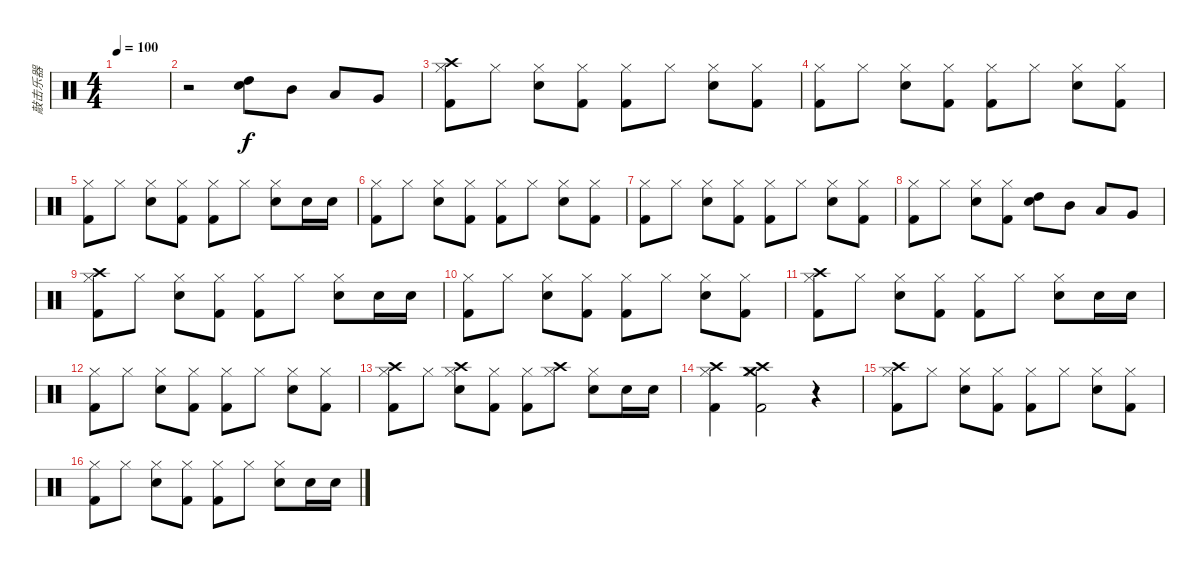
\track ("敲击乐器" "敲击乐器") {instrument percussion}
\staff {score}
\articulation defaults
\ts (4 4)
\tempo 100
\clef neutral
\ks c
|
r.2 ("High Tom (hit)" "Electric Snare (hit)").8 "Mid Tom (hit)".8 "Low Tom (hit)".8 "Very Low Tom (hit)".8 |
("Hi-Hat (closed)" "Crash high (hit)" "Kick (hit) 2").8 "Hi-Hat (closed)".8 ("Hi-Hat (closed)" "Electric Snare (hit)").8 ("Hi-Hat (closed)" "Kick (hit) 2").8 ("Hi-Hat (closed)" "Kick (hit) 2").8 "Hi-Hat (closed)".8 ("Hi-Hat (closed)" "Electric Snare (hit)").8 ("Hi-Hat (closed)" "Kick (hit) 2").8 |
("Hi-Hat (closed)" "Kick (hit) 2").8 "Hi-Hat (closed)".8 ("Hi-Hat (closed)" "Electric Snare (hit)").8 ("Hi-Hat (closed)" "Kick (hit) 2").8 ("Hi-Hat (closed)" "Kick (hit) 2").8 "Hi-Hat (closed)".8 ("Hi-Hat (closed)" "Electric Snare (hit)").8 ("Hi-Hat (closed)" "Kick (hit) 2").8 |
("Hi-Hat (closed)" "Kick (hit) 2").8 "Hi-Hat (closed)".8 ("Hi-Hat (closed)" "Electric Snare (hit)").8 ("Hi-Hat (closed)" "Kick (hit) 2").8 ("Hi-Hat (closed)" "Kick (hit) 2").8 "Hi-Hat (closed)".8 ("Hi-Hat (closed)" "Electric Snare (hit)").8 "Electric Snare (hit)".16 "Electric Snare (hit)".16 |
("Hi-Hat (closed)" "Kick (hit) 2").8 "Hi-Hat (closed)".8 ("Hi-Hat (closed)" "Electric Snare (hit)").8 ("Hi-Hat (closed)" "Kick (hit) 2").8 ("Hi-Hat (closed)" "Kick (hit) 2").8 "Hi-Hat (closed)".8 ("Hi-Hat (closed)" "Electric Snare (hit)").8 ("Hi-Hat (closed)" "Kick (hit) 2").8 |
("Hi-Hat (closed)" "Kick (hit) 2").8 "Hi-Hat (closed)".8 ("Hi-Hat (closed)" "Electric Snare (hit)").8 ("Hi-Hat (closed)" "Kick (hit) 2").8 ("Hi-Hat (closed)" "Kick (hit) 2").8 "Hi-Hat (closed)".8 ("Hi-Hat (closed)" "Electric Snare (hit)").8 ("Hi-Hat (closed)" "Kick (hit) 2").8 |
("Hi-Hat (closed)" "Kick (hit) 2").8 "Hi-Hat (closed)".8 ("Hi-Hat (closed)" "Electric Snare (hit)").8 ("Hi-Hat (closed)" "Kick (hit) 2").8 ("High Tom (hit)" "Electric Snare (hit)").8 "Mid Tom (hit)".8 "Low Tom (hit)".8 "Very Low Tom (hit)".8 |
("Hi-Hat (closed)" "Crash high (hit)" "Kick (hit) 2").8 "Hi-Hat (closed)".8 ("Hi-Hat (closed)" "Electric Snare (hit)").8 ("Hi-Hat (closed)" "Kick (hit) 2").8 ("Hi-Hat (closed)" "Kick (hit) 2").8 "Hi-Hat (closed)".8 ("Hi-Hat (closed)" "Electric Snare (hit)").8 "Electric Snare (hit)".16 "Electric Snare (hit)".16 |
("Hi-Hat (closed)" "Kick (hit) 2").8 "Hi-Hat (closed)".8 ("Hi-Hat (closed)" "Electric Snare (hit)").8 ("Hi-Hat (closed)" "Kick (hit) 2").8 ("Hi-Hat (closed)" "Kick (hit) 2").8 "Hi-Hat (closed)".8 ("Hi-Hat (closed)" "Electric Snare (hit)").8 ("Hi-Hat (closed)" "Kick (hit) 2").8 |
("Hi-Hat (closed)" "Crash high (hit)" "Kick (hit) 2").8 "Hi-Hat (closed)".8 ("Hi-Hat (closed)" "Electric Snare (hit)").8 ("Hi-Hat (closed)" "Kick (hit) 2").8 ("Hi-Hat (closed)" "Kick (hit) 2").8 "Hi-Hat (closed)".8 ("Hi-Hat (closed)" "Electric Snare (hit)").8 "Electric Snare (hit)".16 "Electric Snare (hit)".16 |
("Hi-Hat (closed)" "Kick (hit) 2").8 "Hi-Hat (closed)".8 ("Hi-Hat (closed)" "Electric Snare (hit)").8 ("Hi-Hat (closed)" "Kick (hit) 2").8 ("Hi-Hat (closed)" "Kick (hit) 2").8 "Hi-Hat (closed)".8 ("Hi-Hat (closed)" "Electric Snare (hit)").8 ("Hi-Hat (closed)" "Kick (hit) 2").8 |
("Hi-Hat (closed)" "Crash high (hit)" "Kick (hit) 2").8 "Hi-Hat (closed)".8 ("Hi-Hat (closed)" "Electric Snare (hit)" "Crash high (hit)").8 ("Hi-Hat (closed)" "Kick (hit) 2").8 ("Hi-Hat (closed)" "Kick (hit) 2").8 ("Hi-Hat (closed)" "Crash high (hit)").8 ("Hi-Hat (closed)" "Electric Snare (hit)").8 "Electric Snare (hit)".16 "Electric Snare (hit)".16 |
("Hi-Hat (closed)" "Kick (hit) 2" "Crash high (hit)").4 ("Hi-Hat (closed)" "Kick (hit) 2" "Crash high (hit)" "Crash medium (hit)").2 r.4 |
("Hi-Hat (closed)" "Crash high (hit)" "Kick (hit) 2").8 "Hi-Hat (closed)".8 ("Hi-Hat (closed)" "Electric Snare (hit)").8 ("Hi-Hat (closed)" "Kick (hit) 2").8 ("Hi-Hat (closed)" "Kick (hit) 2").8 "Hi-Hat (closed)".8 ("Hi-Hat (closed)" "Electric Snare (hit)").8 ("Hi-Hat (closed)" "Kick (hit) 2").8 |
("Hi-Hat (closed)" "Kick (hit) 2").8 "Hi-Hat (closed)".8 ("Hi-Hat (closed)" "Electric Snare (hit)").8 ("Hi-Hat (closed)" "Kick (hit) 2").8 ("Hi-Hat (closed)" "Kick (hit) 2").8 "Hi-Hat (closed)".8 ("Hi-Hat (closed)" "Electric Snare (hit)").8 "Electric Snare (hit)".16 "Electric Snare (hit)".16
